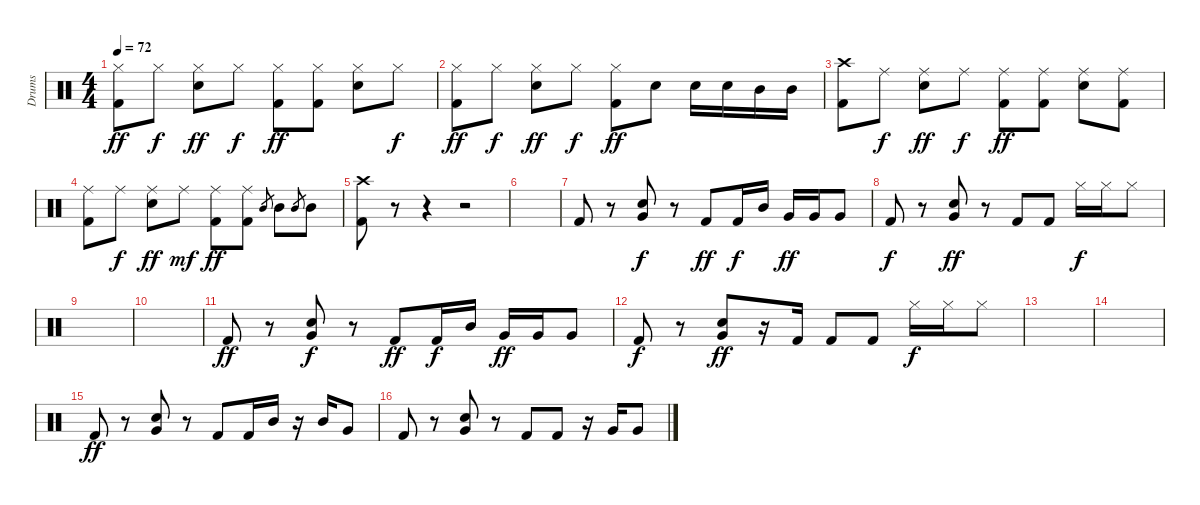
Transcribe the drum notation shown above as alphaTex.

\track ("Drums" "Drums") {instrument percussion}
\staff {score}
\articulation defaults
\ts (4 4)
\tempo 72
\clef neutral
\ks c
("Hi-Hat (closed)" "Kick (hit) 2").8{dy ff} "Hi-Hat (closed)".8{dy f} ("Hi-Hat (closed)" "Snare (hit) 2").8{dy ff} "Hi-Hat (closed)".8{dy f} ("Hi-Hat (closed)" "Kick (hit) 2").8{dy ff} ("Hi-Hat (closed)" "Kick (hit) 2").8 ("Hi-Hat (closed)" "Snare (hit) 2").8 "Hi-Hat (closed)".8{dy f} |
("Hi-Hat (closed)" "Kick (hit) 2").8{dy ff} "Hi-Hat (closed)".8{dy f} ("Hi-Hat (closed)" "Snare (hit) 2").8{dy ff} "Hi-Hat (closed)".8{dy f} ("Hi-Hat (closed)" "Kick (hit) 2").8{dy ff} "Snare (hit) 2".8 "Snare (hit) 2".16 "Snare (hit) 2".16 "Mid Tom (hit)".16 "Mid Tom (hit)".16 |
("Crash high (hit)" "Kick (hit) 2").8 "Ride (middle)".8{dy f} ("Ride (middle)" "Snare (hit) 2").8{dy ff} "Ride (middle)".8{dy f} ("Ride (middle)" "Kick (hit) 2").8{dy ff} ("Ride (middle)" "Kick (hit) 2").8 ("Ride (middle)" "Snare (hit) 2").8 ("Ride (middle)" "Kick (hit) 2").8 |
("Ride (middle)" "Kick (hit) 2").8 "Ride (middle)".8{dy f} ("Ride (middle)" "Snare (hit) 2").8{dy ff} "Ride (middle)".8{dy mf} ("Ride (middle)" "Kick (hit) 2").8{dy ff} ("Ride (middle)" "Kick (hit) 2").8 "Mid Tom (hit)".8{gr} "Mid Tom (hit)".8 "Mid Tom (hit)".8{gr} "Mid Tom (hit)".8 |
("Crash high (hit)" "Kick (hit) 2").8 r.8 r.4 r.2 |
|
"Kick (hit) 2".8 r.8 ("Snare (hit) 2" "Very Low Tom (hit)").8{dy f} r.8 "Kick (hit) 2".8{dy ff} "Kick (hit) 2".16{dy f} "Mid Tom (hit)".16 "Very Low Tom (hit)".16{dy ff} "Very Low Tom (hit)".16 "Very Low Tom (hit)".8 |
"Kick (hit) 2".8{dy f} r.8 ("Snare (hit) 2" "Very Low Tom (hit)").8{dy ff} r.8 "Kick (hit) 2".8 "Kick (hit) 2".8 "Hi-Hat (closed)".16{dy f} "Hi-Hat (closed)".16 "Hi-Hat (closed)".8 |
|
|
"Kick (hit) 2".8{dy ff} r.8 ("Snare (hit) 2" "Very Low Tom (hit)").8{dy f} r.8 "Kick (hit) 2".8{dy ff} "Kick (hit) 2".16{dy f} "Mid Tom (hit)".16 "Very Low Tom (hit)".16{dy ff} "Very Low Tom (hit)".16 "Very Low Tom (hit)".8 |
"Kick (hit) 2".8{dy f} r.8 ("Snare (hit) 2" "Very Low Tom (hit)").8{dy ff} r.16 "Kick (hit) 2".16 "Kick (hit) 2".8 "Kick (hit) 2".8 "Hi-Hat (closed)".16{dy f} "Hi-Hat (closed)".16 "Hi-Hat (closed)".8 |
|
|
"Kick (hit) 2".8{dy ff} r.8 ("Snare (hit) 2" "Very Low Tom (hit)").8 r.8 "Kick (hit) 2".8 "Kick (hit) 2".16 "Mid Tom (hit)".16 r.16 "Mid Tom (hit)".16 "Very Low Tom (hit)".8 |
"Kick (hit) 2".8 r.8 ("Snare (hit) 2" "Very Low Tom (hit)").8 r.8 "Kick (hit) 2".8 "Kick (hit) 2".8 r.16 "Very Low Tom (hit)".16 "Very Low Tom (hit)".8
